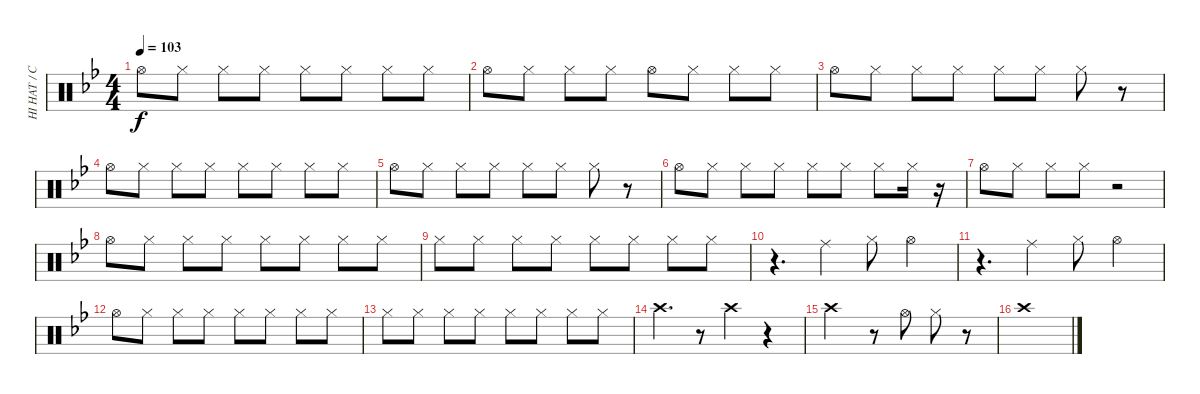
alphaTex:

\track ("HI HAT / CYMBALS" "HI HAT / C") {instrument percussion}
\staff {score}
\articulation defaults
\ts (4 4)
\tempo 103
\clef neutral
\ks bb "Hi-Hat (open)".8{dy f} "Hi-Hat (closed)".8 "Hi-Hat (closed)".8 "Hi-Hat (closed)".8 "Hi-Hat (closed)".8 "Hi-Hat (closed)".8 "Hi-Hat (closed)".8 "Hi-Hat (closed)".8
|
"Hi-Hat (open)".8 "Hi-Hat (closed)".8 "Hi-Hat (closed)".8 "Hi-Hat (closed)".8 "Hi-Hat (open)".8 "Hi-Hat (closed)".8 "Hi-Hat (closed)".8 "Hi-Hat (closed)".8 |
"Hi-Hat (open)".8 "Hi-Hat (closed)".8 "Hi-Hat (closed)".8 "Hi-Hat (closed)".8 "Hi-Hat (closed)".8 "Hi-Hat (closed)".8 "Hi-Hat (closed)".8 r.8 |
"Hi-Hat (open)".8 "Hi-Hat (closed)".8 "Hi-Hat (closed)".8 "Hi-Hat (closed)".8 "Hi-Hat (closed)".8 "Hi-Hat (closed)".8 "Hi-Hat (closed)".8 "Hi-Hat (closed)".8 |
"Hi-Hat (open)".8 "Hi-Hat (closed)".8 "Hi-Hat (closed)".8 "Hi-Hat (closed)".8 "Hi-Hat (closed)".8 "Hi-Hat (closed)".8 "Hi-Hat (closed)".8 r.8 |
"Hi-Hat (open)".8 "Hi-Hat (closed)".8 "Hi-Hat (closed)".8 "Hi-Hat (closed)".8 "Hi-Hat (closed)".8 "Hi-Hat (closed)".8 "Hi-Hat (closed)".8 "Hi-Hat (closed)".16 r.16 |
"Hi-Hat (open)".8 "Hi-Hat (closed)".8 "Hi-Hat (closed)".8 "Hi-Hat (closed)".8 r.2 |
"Hi-Hat (open)".8 "Hi-Hat (closed)".8 "Hi-Hat (closed)".8 "Hi-Hat (closed)".8 "Hi-Hat (closed)".8 "Hi-Hat (closed)".8 "Hi-Hat (closed)".8 "Hi-Hat (closed)".8 |
"Hi-Hat (closed)".8 "Hi-Hat (closed)".8 "Hi-Hat (closed)".8 "Hi-Hat (closed)".8 "Hi-Hat (closed)".8 "Hi-Hat (closed)".8 "Hi-Hat (closed)".8 "Hi-Hat (closed)".8 |
r.4{d} "Ride (middle)".4 "Hi-Hat (closed)".8 "Hi-Hat (open)".4 |
r.4{d} "Ride (middle)".4 "Hi-Hat (closed)".8 "Hi-Hat (open)".4 |
"Hi-Hat (open)".8 "Hi-Hat (closed)".8 "Hi-Hat (closed)".8 "Hi-Hat (closed)".8 "Hi-Hat (closed)".8 "Hi-Hat (closed)".8 "Hi-Hat (closed)".8 "Hi-Hat (closed)".8 |
"Hi-Hat (closed)".8 "Hi-Hat (closed)".8 "Hi-Hat (closed)".8 "Hi-Hat (closed)".8 "Hi-Hat (closed)".8 "Hi-Hat (closed)".8 "Hi-Hat (closed)".8 "Hi-Hat (closed)".8 |
"Crash high (hit)".4{d} r.8 "Crash high (hit)".4 r.4 |
"Crash high (hit)".2 r.8 "Hi-Hat (open)".8 "Hi-Hat (closed)".8 r.8 |
"Crash high (hit)".1
